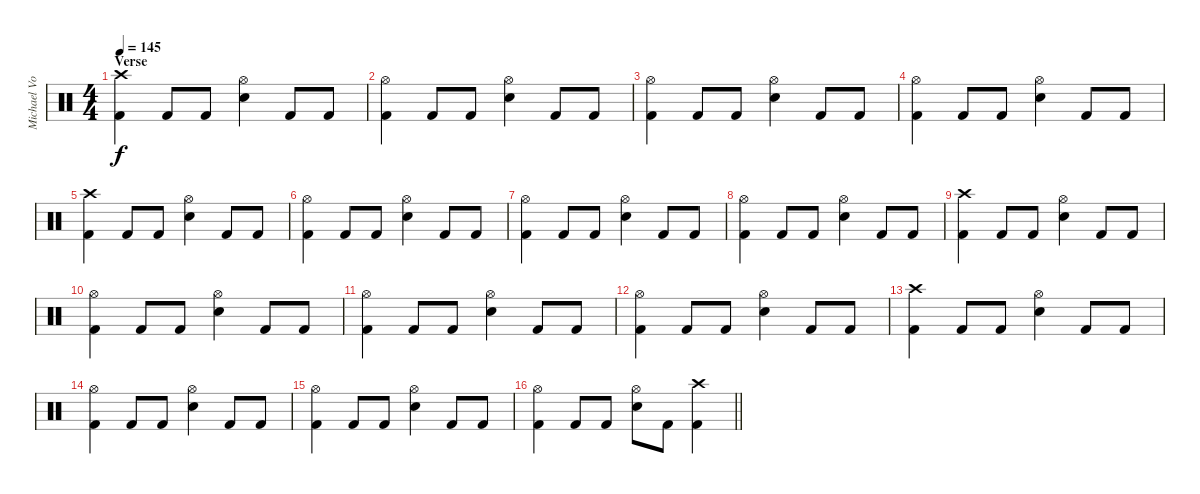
\track ("Michael Von Knorring" "Michael Vo") {instrument percussion}
\staff {score}
\articulation defaults
\ts (4 4)
\section ("" "Verse")
\tempo 145
\clef neutral
\ks c
("Crash high (hit)" "Kick (hit) 2").4{dy f} "Kick (hit) 2".8 "Kick (hit) 2".8 ("Hi-Hat (open)" "Snare (hit) 2").4 "Kick (hit) 2".8 "Kick (hit) 2".8 |
("Hi-Hat (open)" "Kick (hit) 2").4 "Kick (hit) 2".8 "Kick (hit) 2".8 ("Hi-Hat (open)" "Snare (hit) 2").4 "Kick (hit) 2".8 "Kick (hit) 2".8 |
("Hi-Hat (open)" "Kick (hit) 2").4 "Kick (hit) 2".8 "Kick (hit) 2".8 ("Hi-Hat (open)" "Snare (hit) 2").4 "Kick (hit) 2".8 "Kick (hit) 2".8 |
("Hi-Hat (open)" "Kick (hit) 2").4 "Kick (hit) 2".8 "Kick (hit) 2".8 ("Hi-Hat (open)" "Snare (hit) 2").4 "Kick (hit) 2".8 "Kick (hit) 2".8 |
("Crash high (hit)" "Kick (hit) 2").4 "Kick (hit) 2".8 "Kick (hit) 2".8 ("Hi-Hat (open)" "Snare (hit) 2").4 "Kick (hit) 2".8 "Kick (hit) 2".8 |
("Hi-Hat (open)" "Kick (hit) 2").4 "Kick (hit) 2".8 "Kick (hit) 2".8 ("Hi-Hat (open)" "Snare (hit) 2").4 "Kick (hit) 2".8 "Kick (hit) 2".8 |
("Hi-Hat (open)" "Kick (hit) 2").4 "Kick (hit) 2".8 "Kick (hit) 2".8 ("Hi-Hat (open)" "Snare (hit) 2").4 "Kick (hit) 2".8 "Kick (hit) 2".8 |
("Hi-Hat (open)" "Kick (hit) 2").4 "Kick (hit) 2".8 "Kick (hit) 2".8 ("Hi-Hat (open)" "Snare (hit) 2").4 "Kick (hit) 2".8 "Kick (hit) 2".8 |
("Crash high (hit)" "Kick (hit) 2").4 "Kick (hit) 2".8 "Kick (hit) 2".8 ("Hi-Hat (open)" "Snare (hit) 2").4 "Kick (hit) 2".8 "Kick (hit) 2".8 |
("Hi-Hat (open)" "Kick (hit) 2").4 "Kick (hit) 2".8 "Kick (hit) 2".8 ("Hi-Hat (open)" "Snare (hit) 2").4 "Kick (hit) 2".8 "Kick (hit) 2".8 |
("Hi-Hat (open)" "Kick (hit) 2").4 "Kick (hit) 2".8 "Kick (hit) 2".8 ("Hi-Hat (open)" "Snare (hit) 2").4 "Kick (hit) 2".8 "Kick (hit) 2".8 |
("Hi-Hat (open)" "Kick (hit) 2").4 "Kick (hit) 2".8 "Kick (hit) 2".8 ("Hi-Hat (open)" "Snare (hit) 2").4 "Kick (hit) 2".8 "Kick (hit) 2".8 |
("Crash high (hit)" "Kick (hit) 2").4 "Kick (hit) 2".8 "Kick (hit) 2".8 ("Hi-Hat (open)" "Snare (hit) 2").4 "Kick (hit) 2".8 "Kick (hit) 2".8 |
("Hi-Hat (open)" "Kick (hit) 2").4 "Kick (hit) 2".8 "Kick (hit) 2".8 ("Hi-Hat (open)" "Snare (hit) 2").4 "Kick (hit) 2".8 "Kick (hit) 2".8 |
("Hi-Hat (open)" "Kick (hit) 2").4 "Kick (hit) 2".8 "Kick (hit) 2".8 ("Hi-Hat (open)" "Snare (hit) 2").4 "Kick (hit) 2".8 "Kick (hit) 2".8 |
\barLineRight lightlight
("Hi-Hat (open)" "Kick (hit) 2").4 "Kick (hit) 2".8 "Kick (hit) 2".8 ("Hi-Hat (open)" "Snare (hit) 2").8 "Kick (hit) 2".8 ("Crash high (hit)" "Kick (hit) 2").4
